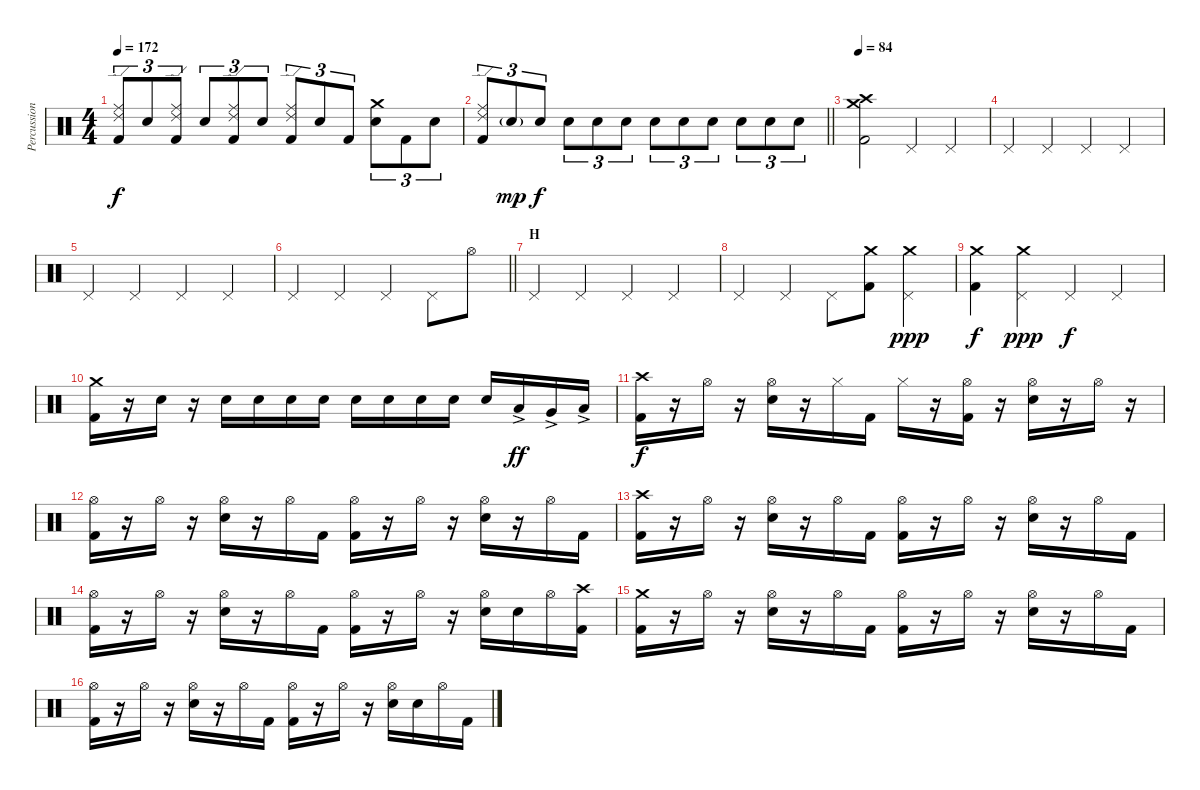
\track ("Percussion" "Percussion") {instrument percussion}
\staff {score}
\articulation defaults
\ts (4 4)
\tempo 172
\clef neutral
\ks c
("Ride (edge) 2" "Ride (middle)" "Kick (hit) 2").8{tu (3 2) dy f} "Electric Snare (hit)".8{tu (3 2)} ("Ride (edge) 2" "Ride (middle)" "Kick (hit) 2").8{tu (3 2)} "Electric Snare (hit)".8{tu (3 2)} ("Ride (edge) 2" "Ride (middle)" "Kick (hit) 2").8{tu (3 2)} "Electric Snare (hit)".8{tu (3 2)} ("Ride (edge) 2" "Ride (middle)" "Kick (hit) 2").8{tu (3 2)} "Electric Snare (hit)".8{tu (3 2)} "Kick (hit) 2".8{tu (3 2)} ("Crash medium (hit)" "Electric Snare (hit)").8{tu (3 2)} "Kick (hit) 2".8{tu (3 2)} "Electric Snare (hit)".8{tu (3 2)} |
\barLineRight lightlight
("Ride (edge) 2" "Ride (middle)" "Kick (hit) 2").8{tu (3 2)} "Electric Snare (hit)"{g}.8{tu (3 2) dy mp} "Electric Snare (hit)".8{tu (3 2) dy f} "Electric Snare (hit)".8{tu (3 2)} "Electric Snare (hit)".8{tu (3 2)} "Electric Snare (hit)".8{tu (3 2)} "Electric Snare (hit)".8{tu (3 2)} "Electric Snare (hit)".8{tu (3 2)} "Electric Snare (hit)".8{tu (3 2)} "Electric Snare (hit)".8{tu (3 2)} "Electric Snare (hit)".8{tu (3 2)} "Electric Snare (hit)".8{tu (3 2)} |
\tempo 84
("Crash medium (hit)" "Crash high (hit)" "Kick (hit) 2").2 "Pedal Hi-Hat (hit)".4 "Pedal Hi-Hat (hit)".4 |
"Pedal Hi-Hat (hit)".4 "Pedal Hi-Hat (hit)".4 "Pedal Hi-Hat (hit)".4 "Pedal Hi-Hat (hit)".4 |
"Pedal Hi-Hat (hit)".4 "Pedal Hi-Hat (hit)".4 "Pedal Hi-Hat (hit)".4 "Pedal Hi-Hat (hit)".4 |
\barLineRight lightlight "Pedal Hi-Hat (hit)".4 "Pedal Hi-Hat (hit)".4 "Pedal Hi-Hat (hit)".4 "Pedal Hi-Hat (hit)".8 "Hi-Hat (open)".8
|
\section ("" "H")
"Pedal Hi-Hat (hit)".4 "Pedal Hi-Hat (hit)".4 "Pedal Hi-Hat (hit)".4 "Pedal Hi-Hat (hit)".4 |
"Pedal Hi-Hat (hit)".4 "Pedal Hi-Hat (hit)".4 "Pedal Hi-Hat (hit)".8 ("Crash medium (hit)" "Kick (hit) 2").8 ("Crash medium (hit)" "Pedal Hi-Hat (hit)").4{dy ppp} |
("Crash medium (hit)" "Kick (hit) 2").4{dy f} ("Crash medium (hit)" "Pedal Hi-Hat (hit)").4{dy ppp} "Pedal Hi-Hat (hit)".4{dy f} "Pedal Hi-Hat (hit)".4 |
("Crash medium (hit)" "Kick (hit) 2").16 r.16 "Electric Snare (hit)".16 r.16 "Electric Snare (hit)".16 "Electric Snare (hit)".16 "Electric Snare (hit)".16 "Electric Snare (hit)".16 "Electric Snare (hit)".16 "Electric Snare (hit)".16 "Electric Snare (hit)".16 "Electric Snare (hit)".16 "Electric Snare (hit)".16 "Low Tom (hit)"{ac}.16{dy ff} "Very Low Tom (hit)"{ac}.16 "Low Floor Tom (hit)"{ac}.16 |
("Crash high (hit)" "Kick (hit) 2").16{dy f} r.16 "Hi-Hat (open)".16 r.16 ("Hi-Hat (open)" "Electric Snare (hit)").16 r.16 "Hi-Hat (closed)".16 "Kick (hit) 2".16 "Hi-Hat (closed)".16 r.16 ("Hi-Hat (open)" "Kick (hit) 2").16 r.16 ("Hi-Hat (open)" "Electric Snare (hit)").16 r.16 "Hi-Hat (open)".16 r.16 |
("Hi-Hat (open)" "Kick (hit) 2").16 r.16 "Hi-Hat (open)".16 r.16 ("Hi-Hat (open)" "Electric Snare (hit)").16 r.16 "Hi-Hat (open)".16 "Kick (hit) 2".16 ("Hi-Hat (open)" "Kick (hit) 2").16 r.16 "Hi-Hat (open)".16 r.16 ("Hi-Hat (open)" "Electric Snare (hit)").16 r.16 "Hi-Hat (open)".16 "Kick (hit) 2".16 |
("Crash high (hit)" "Kick (hit) 2").16 r.16 "Hi-Hat (open)".16 r.16 ("Hi-Hat (open)" "Electric Snare (hit)").16 r.16 "Hi-Hat (open)".16 "Kick (hit) 2".16 ("Hi-Hat (open)" "Kick (hit) 2").16 r.16 "Hi-Hat (open)".16 r.16 ("Hi-Hat (open)" "Electric Snare (hit)").16 r.16 "Hi-Hat (open)".16 "Kick (hit) 2".16 |
("Hi-Hat (open)" "Kick (hit) 2").16 r.16 "Hi-Hat (open)".16 r.16 ("Hi-Hat (open)" "Electric Snare (hit)").16 r.16 "Hi-Hat (open)".16 "Kick (hit) 2".16 ("Hi-Hat (open)" "Kick (hit) 2").16 r.16 "Hi-Hat (open)".16 r.16 ("Hi-Hat (open)" "Electric Snare (hit)").16 "Electric Snare (hit)".16 "Hi-Hat (open)".16 ("Crash high (hit)" "Kick (hit) 2").16 |
("Crash medium (hit)" "Kick (hit) 2").16 r.16 "Hi-Hat (open)".16 r.16 ("Hi-Hat (open)" "Electric Snare (hit)").16 r.16 "Hi-Hat (open)".16 "Kick (hit) 2".16 ("Hi-Hat (open)" "Kick (hit) 2").16 r.16 "Hi-Hat (open)".16 r.16 ("Hi-Hat (open)" "Electric Snare (hit)").16 r.16 "Hi-Hat (open)".16 "Kick (hit) 2".16 |
("Hi-Hat (open)" "Kick (hit) 2").16 r.16 "Hi-Hat (open)".16 r.16 ("Hi-Hat (open)" "Electric Snare (hit)").16 r.16 "Hi-Hat (open)".16 "Kick (hit) 2".16 ("Hi-Hat (open)" "Kick (hit) 2").16 r.16 "Hi-Hat (open)".16 r.16 ("Hi-Hat (open)" "Electric Snare (hit)").16 "Electric Snare (hit)".16 "Hi-Hat (open)".16 "Kick (hit) 2".16
